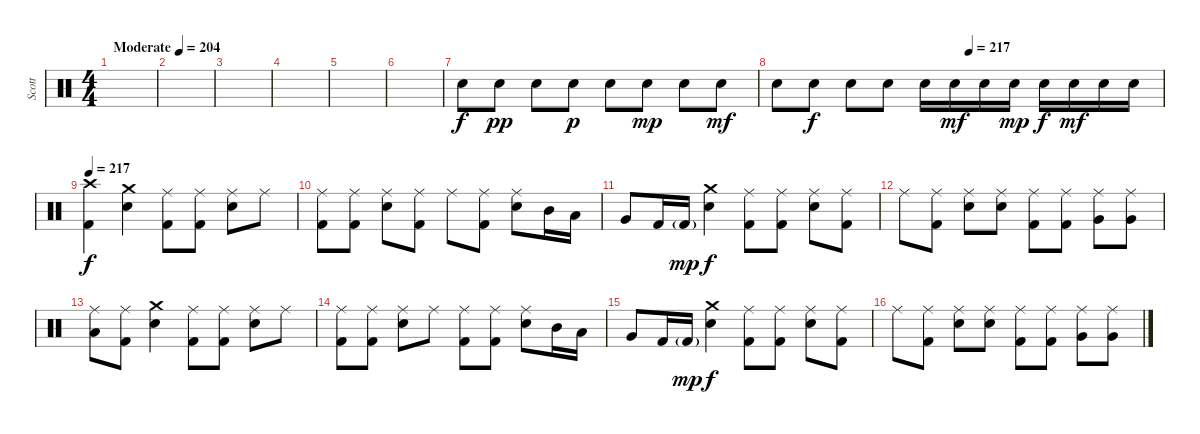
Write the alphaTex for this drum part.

\track ("Scott" "Scott") {instrument percussion}
\staff {score}
\articulation defaults
\ts (4 4)
\tempo (204 "Moderate")
\clef neutral
\ks c
|
|
|
|
|
|
"Electric Snare (hit)".8 "Electric Snare (hit)".8{dy pp} "Electric Snare (hit)".8 "Electric Snare (hit)".8{dy p} "Electric Snare (hit)".8 "Electric Snare (hit)".8{dy mp} "Electric Snare (hit)".8 "Electric Snare (hit)".8{dy mf} |
\tempo (217 0.5)
"Electric Snare (hit)".8 "Electric Snare (hit)".8{dy f} "Electric Snare (hit)".8 "Electric Snare (hit)".8 "Electric Snare (hit)".16 "Electric Snare (hit)".16{dy mf} "Electric Snare (hit)".16 "Electric Snare (hit)".16{dy mp} "Electric Snare (hit)".16{dy f} "Electric Snare (hit)".16{dy mf} "Electric Snare (hit)".16 "Electric Snare (hit)".16 |
\tempo 217
("Crash high (hit)" "Kick (hit) 2").4{dy f} ("Crash medium (hit)" "Electric Snare (hit)").4 ("Ride (middle)" "Kick (hit) 2").8 ("Ride (middle)" "Kick (hit) 2").8 ("Ride (middle)" "Electric Snare (hit)").8 "Ride (middle)".8 |
("Ride (middle)" "Kick (hit) 2").8 ("Ride (middle)" "Kick (hit) 2").8 ("Ride (middle)" "Electric Snare (hit)").8 ("Ride (middle)" "Kick (hit) 2").8 "Ride (middle)".8 ("Ride (middle)" "Kick (hit) 2").8 ("Ride (middle)" "Electric Snare (hit)").8 "Mid Tom (hit)".16 "Low Tom (hit)".16 |
"Very Low Tom (hit)".8 "Kick (hit) 2".16 "Kick (hit) 2"{g}.16{dy mp} ("Crash medium (hit)" "Electric Snare (hit)").4{dy f} ("Ride (middle)" "Kick (hit) 2").8 ("Ride (middle)" "Kick (hit) 2").8 ("Ride (middle)" "Electric Snare (hit)").8 ("Ride (middle)" "Kick (hit) 2").8 |
"Ride (middle)".8 ("Ride (middle)" "Kick (hit) 2").8 ("Ride (middle)" "Electric Snare (hit)").8 ("Ride (middle)" "Electric Snare (hit)").8 ("Ride (middle)" "Kick (hit) 2").8 ("Ride (middle)" "Kick (hit) 2").8 ("Ride (middle)" "Very Low Tom (hit)").8 ("Ride (middle)" "Very Low Tom (hit)").8 |
("Ride (middle)" "Low Floor Tom (hit)").8 ("Ride (middle)" "Kick (hit) 2").8 ("Crash medium (hit)" "Electric Snare (hit)").4 ("Ride (middle)" "Kick (hit) 2").8 ("Ride (middle)" "Kick (hit) 2").8 ("Ride (middle)" "Electric Snare (hit)").8 "Ride (middle)".8 |
("Ride (middle)" "Kick (hit) 2").8 ("Ride (middle)" "Kick (hit) 2").8 ("Ride (middle)" "Electric Snare (hit)").8 "Ride (middle)".8 ("Ride (middle)" "Kick (hit) 2").8 ("Ride (middle)" "Kick (hit) 2").8 ("Ride (middle)" "Electric Snare (hit)").8 "Mid Tom (hit)".16 "Low Tom (hit)".16 |
"Very Low Tom (hit)".8 "Kick (hit) 2".16 "Kick (hit) 2"{g}.16{dy mp} ("Crash medium (hit)" "Electric Snare (hit)").4{dy f} ("Ride (middle)" "Kick (hit) 2").8 ("Ride (middle)" "Kick (hit) 2").8 ("Ride (middle)" "Electric Snare (hit)").8 ("Ride (middle)" "Kick (hit) 2").8 |
"Ride (middle)".8 ("Ride (middle)" "Kick (hit) 2").8 ("Ride (middle)" "Electric Snare (hit)").8 ("Ride (middle)" "Electric Snare (hit)").8 ("Ride (middle)" "Kick (hit) 2").8 ("Ride (middle)" "Kick (hit) 2").8 ("Ride (middle)" "Very Low Tom (hit)").8 ("Ride (middle)" "Very Low Tom (hit)").8
